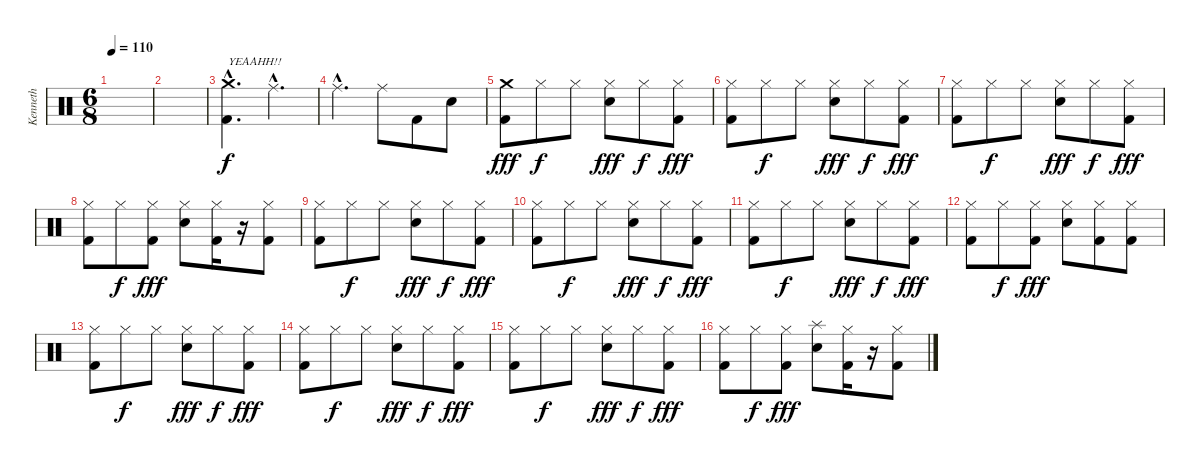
\track ("Kenneth " "Kenneth ") {instrument percussion}
\staff {score}
\articulation defaults
\ts (6 8)
\tempo 110
\clef neutral
\ks c
|
|
("Crash medium (hit)"{hac} "Kick (hit) 2"{hac}).4{d txt "YEAAHH!!"} "Ride (middle)"{hac}.4{d} |
"Ride (middle)"{hac}.4{d} "Ride (middle)".8 "Kick (hit) 2".8 "Electric Snare (hit)".8{dy f} |
("Crash medium (hit)" "Kick (hit) 2").8{dy fff} "Hi-Hat (closed)".8{dy f} "Hi-Hat (closed)".8 ("Hi-Hat (closed)" "Electric Snare (hit)").8{dy fff} "Hi-Hat (closed)".8{dy f} ("Hi-Hat (closed)" "Kick (hit) 2").8{dy fff} |
("Hi-Hat (closed)" "Kick (hit) 2").8 "Hi-Hat (closed)".8{dy f} "Hi-Hat (closed)".8 ("Hi-Hat (closed)" "Electric Snare (hit)").8{dy fff} "Hi-Hat (closed)".8{dy f} ("Hi-Hat (closed)" "Kick (hit) 2").8{dy fff} |
("Hi-Hat (closed)" "Kick (hit) 2").8 "Hi-Hat (closed)".8{dy f} "Hi-Hat (closed)".8 ("Hi-Hat (closed)" "Electric Snare (hit)").8{dy fff} "Hi-Hat (closed)".8{dy f} ("Hi-Hat (closed)" "Kick (hit) 2").8{dy fff} |
("Hi-Hat (closed)" "Kick (hit) 2").8 "Hi-Hat (closed)".8{dy f} ("Hi-Hat (closed)" "Kick (hit) 2").8{dy fff} ("Hi-Hat (closed)" "Electric Snare (hit)").8 ("Hi-Hat (closed)" "Kick (hit) 2").16 r.16 ("Hi-Hat (closed)" "Kick (hit) 2").8 |
("Hi-Hat (closed)" "Kick (hit) 2").8 "Hi-Hat (closed)".8{dy f} "Hi-Hat (closed)".8 ("Hi-Hat (closed)" "Electric Snare (hit)").8{dy fff} "Hi-Hat (closed)".8{dy f} ("Hi-Hat (closed)" "Kick (hit) 2").8{dy fff} |
("Hi-Hat (closed)" "Kick (hit) 2").8 "Hi-Hat (closed)".8{dy f} "Hi-Hat (closed)".8 ("Hi-Hat (closed)" "Electric Snare (hit)").8{dy fff} "Hi-Hat (closed)".8{dy f} ("Hi-Hat (closed)" "Kick (hit) 2").8{dy fff} |
("Hi-Hat (closed)" "Kick (hit) 2").8 "Hi-Hat (closed)".8{dy f} "Hi-Hat (closed)".8 ("Hi-Hat (closed)" "Electric Snare (hit)").8{dy fff} "Hi-Hat (closed)".8{dy f} ("Hi-Hat (closed)" "Kick (hit) 2").8{dy fff} |
("Hi-Hat (closed)" "Kick (hit) 2").8 "Hi-Hat (closed)".8{dy f} ("Hi-Hat (closed)" "Kick (hit) 2").8{dy fff} ("Hi-Hat (closed)" "Electric Snare (hit)").8 ("Hi-Hat (closed)" "Kick (hit) 2").8 ("Hi-Hat (closed)" "Kick (hit) 2").8 |
("Hi-Hat (closed)" "Kick (hit) 2").8 "Hi-Hat (closed)".8{dy f} "Hi-Hat (closed)".8 ("Hi-Hat (closed)" "Electric Snare (hit)").8{dy fff} "Hi-Hat (closed)".8{dy f} ("Hi-Hat (closed)" "Kick (hit) 2").8{dy fff} |
("Hi-Hat (closed)" "Kick (hit) 2").8 "Hi-Hat (closed)".8{dy f} "Hi-Hat (closed)".8 ("Hi-Hat (closed)" "Electric Snare (hit)").8{dy fff} "Hi-Hat (closed)".8{dy f} ("Hi-Hat (closed)" "Kick (hit) 2").8{dy fff} |
("Hi-Hat (closed)" "Kick (hit) 2").8 "Hi-Hat (closed)".8{dy f} "Hi-Hat (closed)".8 ("Hi-Hat (closed)" "Electric Snare (hit)").8{dy fff} "Hi-Hat (closed)".8{dy f} ("Hi-Hat (closed)" "Kick (hit) 2").8{dy fff} |
("Hi-Hat (closed)" "Kick (hit) 2").8 "Hi-Hat (closed)".8{dy f} ("Hi-Hat (closed)" "Kick (hit) 2").8{dy fff} ("Splash (hit)" "Electric Snare (hit)").8 ("Hi-Hat (closed)" "Kick (hit) 2").16 r.16 ("Hi-Hat (closed)" "Kick (hit) 2").8
